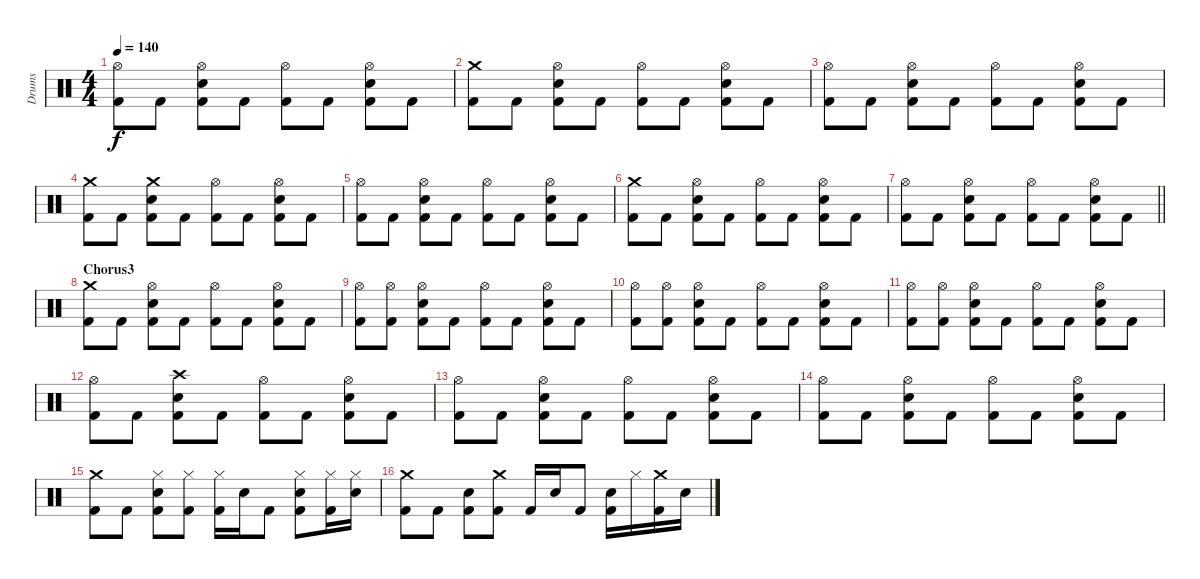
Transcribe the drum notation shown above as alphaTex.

\track ("Drums" "Drums") {instrument percussion}
\staff {score}
\articulation defaults
\ts (4 4)
\tempo 140
\clef neutral
\ks c
("Hi-Hat (open)" "Kick (hit) 2").8{dy f} "Kick (hit) 2".8 ("Hi-Hat (open)" "Snare (hit) 2" "Kick (hit) 2").8 "Kick (hit) 2".8 ("Hi-Hat (open)" "Kick (hit) 2").8 "Kick (hit) 2".8 ("Hi-Hat (open)" "Snare (hit) 2" "Kick (hit) 2").8 "Kick (hit) 2".8 |
("Crash medium (hit)" "Kick (hit) 2").8 "Kick (hit) 2".8 ("Hi-Hat (open)" "Snare (hit) 2" "Kick (hit) 2").8 "Kick (hit) 2".8 ("Hi-Hat (open)" "Kick (hit) 2").8 "Kick (hit) 2".8 ("Hi-Hat (open)" "Snare (hit) 2" "Kick (hit) 2").8 "Kick (hit) 2".8 |
("Hi-Hat (open)" "Kick (hit) 2").8 "Kick (hit) 2".8 ("Hi-Hat (open)" "Snare (hit) 2" "Kick (hit) 2").8 "Kick (hit) 2".8 ("Hi-Hat (open)" "Kick (hit) 2").8 "Kick (hit) 2".8 ("Hi-Hat (open)" "Snare (hit) 2" "Kick (hit) 2").8 "Kick (hit) 2".8 |
("Crash medium (hit)" "Kick (hit) 2").8 "Kick (hit) 2".8 ("Crash medium (hit)" "Snare (hit) 2" "Kick (hit) 2").8 "Kick (hit) 2".8 ("Hi-Hat (open)" "Kick (hit) 2").8 "Kick (hit) 2".8 ("Hi-Hat (open)" "Snare (hit) 2" "Kick (hit) 2").8 "Kick (hit) 2".8 |
("Hi-Hat (open)" "Kick (hit) 2").8 "Kick (hit) 2".8 ("Hi-Hat (open)" "Snare (hit) 2" "Kick (hit) 2").8 "Kick (hit) 2".8 ("Hi-Hat (open)" "Kick (hit) 2").8 "Kick (hit) 2".8 ("Hi-Hat (open)" "Snare (hit) 2" "Kick (hit) 2").8 "Kick (hit) 2".8 |
("Crash medium (hit)" "Kick (hit) 2").8 "Kick (hit) 2".8 ("Hi-Hat (open)" "Snare (hit) 2" "Kick (hit) 2").8 "Kick (hit) 2".8 ("Hi-Hat (open)" "Kick (hit) 2").8 "Kick (hit) 2".8 ("Hi-Hat (open)" "Snare (hit) 2" "Kick (hit) 2").8 "Kick (hit) 2".8 |
\barLineRight lightlight
("Hi-Hat (open)" "Kick (hit) 2").8 "Kick (hit) 2".8 ("Hi-Hat (open)" "Snare (hit) 2" "Kick (hit) 2").8 "Kick (hit) 2".8 ("Hi-Hat (open)" "Kick (hit) 2").8 "Kick (hit) 2".8 ("Hi-Hat (open)" "Snare (hit) 2" "Kick (hit) 2").8 "Kick (hit) 2".8 |
\section ("" "Chorus3")
("Crash medium (hit)" "Kick (hit) 2").8 "Kick (hit) 2".8 ("Hi-Hat (open)" "Snare (hit) 2" "Kick (hit) 2").8 "Kick (hit) 2".8 ("Hi-Hat (open)" "Kick (hit) 2").8 "Kick (hit) 2".8 ("Hi-Hat (open)" "Snare (hit) 2" "Kick (hit) 2").8 "Kick (hit) 2".8 |
("Hi-Hat (open)" "Kick (hit) 2").8 ("Hi-Hat (open)" "Kick (hit) 2").8 ("Hi-Hat (open)" "Snare (hit) 2" "Kick (hit) 2").8 "Kick (hit) 2".8 ("Hi-Hat (open)" "Kick (hit) 2").8 "Kick (hit) 2".8 ("Hi-Hat (open)" "Snare (hit) 2" "Kick (hit) 2").8 "Kick (hit) 2".8 |
("Hi-Hat (open)" "Kick (hit) 2").8 ("Hi-Hat (open)" "Kick (hit) 2").8 ("Hi-Hat (open)" "Snare (hit) 2" "Kick (hit) 2").8 "Kick (hit) 2".8 ("Hi-Hat (open)" "Kick (hit) 2").8 "Kick (hit) 2".8 ("Hi-Hat (open)" "Snare (hit) 2" "Kick (hit) 2").8 "Kick (hit) 2".8 |
("Hi-Hat (open)" "Kick (hit) 2").8 ("Hi-Hat (open)" "Kick (hit) 2").8 ("Hi-Hat (open)" "Snare (hit) 2" "Kick (hit) 2").8 "Kick (hit) 2".8 ("Hi-Hat (open)" "Kick (hit) 2").8 "Kick (hit) 2".8 ("Hi-Hat (open)" "Snare (hit) 2" "Kick (hit) 2").8 "Kick (hit) 2".8 |
("Hi-Hat (open)" "Kick (hit) 2").8 "Kick (hit) 2".8 ("Crash high (hit)" "Snare (hit) 2" "Kick (hit) 2").8 "Kick (hit) 2".8 ("Hi-Hat (open)" "Kick (hit) 2").8 "Kick (hit) 2".8 ("Hi-Hat (open)" "Snare (hit) 2" "Kick (hit) 2").8 "Kick (hit) 2".8 |
("Hi-Hat (open)" "Kick (hit) 2").8 "Kick (hit) 2".8 ("Hi-Hat (open)" "Snare (hit) 2" "Kick (hit) 2").8 "Kick (hit) 2".8 ("Hi-Hat (open)" "Kick (hit) 2").8 "Kick (hit) 2".8 ("Hi-Hat (open)" "Snare (hit) 2" "Kick (hit) 2").8 "Kick (hit) 2".8 |
("Hi-Hat (open)" "Kick (hit) 2").8 "Kick (hit) 2".8 ("Hi-Hat (open)" "Snare (hit) 2" "Kick (hit) 2").8 "Kick (hit) 2".8 ("Hi-Hat (open)" "Kick (hit) 2").8 "Kick (hit) 2".8 ("Hi-Hat (open)" "Snare (hit) 2" "Kick (hit) 2").8 "Kick (hit) 2".8 |
("Crash medium (hit)" "Kick (hit) 2").8 "Kick (hit) 2".8 ("Hi-Hat (closed)" "Snare (hit) 2" "Kick (hit) 2").8 ("Hi-Hat (closed)" "Kick (hit) 2").8 ("Hi-Hat (closed)" "Kick (hit) 2").16 "Snare (hit) 2".16 "Kick (hit) 2".8 ("Hi-Hat (closed)" "Snare (hit) 2" "Kick (hit) 2").8 ("Hi-Hat (closed)" "Kick (hit) 2").16 ("Hi-Hat (closed)" "Snare (hit) 2").16 |
("Crash medium (hit)" "Kick (hit) 2").8 "Kick (hit) 2".8 ("Snare (hit) 2" "Kick (hit) 2").8 ("Crash medium (hit)" "Kick (hit) 2").8 "Kick (hit) 2".16 "Snare (hit) 2".16 "Kick (hit) 2".8 ("Snare (hit) 2" "Kick (hit) 2").16 "Hi-Hat (closed)".16 ("Crash medium (hit)" "Kick (hit) 2").16 "Snare (hit) 2".16
